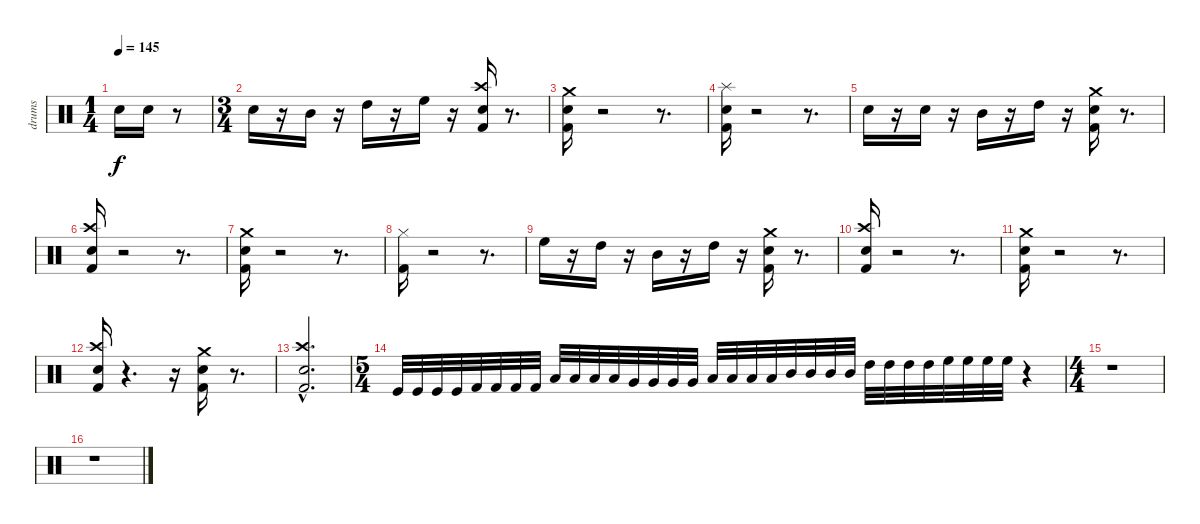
\track ("drums" "drums") {instrument percussion}
\staff {score}
\articulation defaults
\ts (1 4)
\tempo 145
\clef neutral
\ks c "Snare (hit) 2".16{dy f} "Snare (hit) 2".16
r.8 |
\ts (3 4)
"Snare (hit) 2".16 r.16 "Mid Tom (hit)".16 r.16 "High Tom (hit)".16 r.16 "High Floor Tom (hit)".16 r.16 ("Crash high (hit)" "Snare (hit) 2" "Kick (hit) 2").16 r.8{d} |
("Crash medium (hit)" "Snare (hit) 2" "Kick (hit) 2").16 r.2 r.8{d} |
("Splash (hit)" "Snare (hit) 2" "Kick (hit) 2").16 r.2 r.8{d} |
"Snare (hit) 2".16 r.16 "Snare (hit) 2".16 r.16 "Mid Tom (hit)".16 r.16 "High Tom (hit)".16 r.16 ("Crash medium (hit)" "Snare (hit) 2" "Kick (hit) 2").16 r.8{d} |
("Crash high (hit)" "Snare (hit) 2" "Kick (hit) 2").16 r.2 r.8{d} |
("Crash medium (hit)" "Snare (hit) 2" "Kick (hit) 2").16 r.2 r.8{d} |
("Hi-Hat (closed)" "Kick (hit) 2").16 r.2 r.8{d} |
"High Floor Tom (hit)".16 r.16 "High Tom (hit)".16 r.16 "Mid Tom (hit)".16 r.16 "High Tom (hit)".16 r.16 ("Kick (hit) 2" "Crash medium (hit)" "Snare (hit) 2").16 r.8{d} |
("Kick (hit) 2" "Crash high (hit)" "Snare (hit) 2").16 r.2 r.8{d} |
("Kick (hit) 2" "Crash medium (hit)" "Snare (hit) 2").16 r.2 r.8{d} |
("Snare (hit) 2" "Crash high (hit)" "Kick (hit) 2").16 r.4{d} r.16 ("Crash medium (hit)" "Snare (hit) 2" "Kick (hit) 2").16 r.8{d} |
("Snare (hit) 2"{hac} "Crash high (hit)"{hac} "Kick (hit) 2").2{d} |
\ts (5 4)
"Kick (hit)".32 "Kick (hit)".32 "Kick (hit)".32 "Kick (hit)".32 "Kick (hit) 2".32 "Kick (hit) 2".32 "Kick (hit) 2".32 "Kick (hit) 2".32 "Low Floor Tom (hit)".32 "Low Floor Tom (hit)".32 "Low Floor Tom (hit)".32 "Low Floor Tom (hit)".32 "Very Low Tom (hit)".32 "Very Low Tom (hit)".32 "Very Low Tom (hit)".32 "Very Low Tom (hit)".32 "Low Tom (hit)".32 "Low Tom (hit)".32 "Low Tom (hit)".32 "Low Tom (hit)".32 "Mid Tom (hit)".32 "Mid Tom (hit)".32 "Mid Tom (hit)".32 "Mid Tom (hit)".32 "High Tom (hit)".32 "High Tom (hit)".32 "High Tom (hit)".32 "High Tom (hit)".32 "High Floor Tom (hit)".32 "High Floor Tom (hit)".32 "High Floor Tom (hit)".32 "High Floor Tom (hit)".32 r.4 |
\ts (4 4)
r.1 |
r.1
